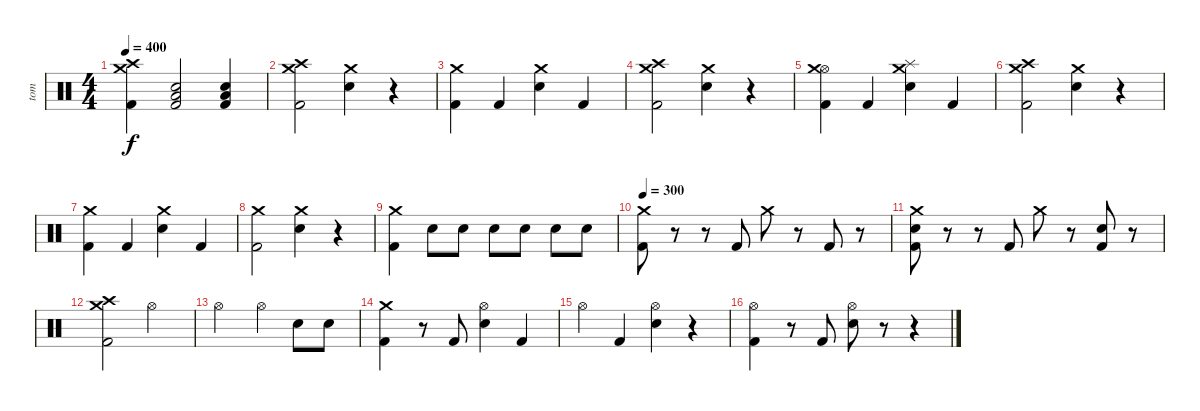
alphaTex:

\track ("tom" "tom") {instrument percussion}
\staff {score}
\articulation defaults
\ts (4 4)
\tempo 400
\clef neutral
\ks c
("Crash high (hit)" "Crash medium (hit)" "Kick (hit) 2").4{dy f} ("Low Tom (hit)" "Kick (hit) 2" "Electric Snare (hit)").2 ("Low Tom (hit)" "Kick (hit) 2" "Electric Snare (hit)").4 |
("Crash high (hit)" "Crash medium (hit)" "Kick (hit) 2").2 ("Crash medium (hit)" "Electric Snare (hit)").4 r.4 |
("Crash medium (hit)" "Kick (hit) 2").4 "Kick (hit) 2".4 ("Crash medium (hit)" "Electric Snare (hit)").4 "Kick (hit) 2".4 |
("Crash high (hit)" "Crash medium (hit)" "Kick (hit) 2").2 ("Crash medium (hit)" "Electric Snare (hit)").4 r.4 |
("Hi-Hat (open)" "Crash medium (hit)" "Kick (hit) 2").4 "Kick (hit) 2".4 ("Splash (hit)" "Crash medium (hit)" "Electric Snare (hit)").4 "Kick (hit) 2".4 |
("Crash high (hit)" "Crash medium (hit)" "Kick (hit) 2").2 ("Crash medium (hit)" "Electric Snare (hit)").4 r.4 |
("Crash medium (hit)" "Kick (hit) 2").4 "Kick (hit) 2".4 ("Crash medium (hit)" "Electric Snare (hit)").4 "Kick (hit) 2".4 |
("Crash medium (hit)" "Kick (hit) 2").2 ("Crash medium (hit)" "Electric Snare (hit)").4 r.4 |
("Crash medium (hit)" "Kick (hit) 2").4 "Electric Snare (hit)".8 "Electric Snare (hit)".8 "Electric Snare (hit)".8 "Electric Snare (hit)".8 "Electric Snare (hit)".8 "Electric Snare (hit)".8 |
\tempo 300
("Crash medium (hit)" "Kick (hit) 2").8 r.8 r.8 "Kick (hit) 2".8 "Crash medium (hit)".8 r.8 "Kick (hit) 2".8 r.8 |
("Electric Snare (hit)" "Crash medium (hit)" "Kick (hit) 2").8 r.8 r.8 "Kick (hit) 2".8 "Crash medium (hit)".8 r.8 ("Electric Snare (hit)" "Kick (hit) 2").8 r.8 |
("Crash high (hit)" "Crash medium (hit)" "Kick (hit) 2").2 "Hi-Hat (open)".2 |
"Hi-Hat (open)".2 "Hi-Hat (open)".4 "Electric Snare (hit)".8 "Electric Snare (hit)".8 |
("Crash medium (hit)" "Kick (hit) 2").4 r.8 "Kick (hit) 2".8 ("Hi-Hat (open)" "Electric Snare (hit)").4 "Kick (hit) 2".4 |
"Hi-Hat (open)".4 "Kick (hit) 2".4 ("Hi-Hat (open)" "Electric Snare (hit)").4 r.4 |
("Hi-Hat (open)" "Kick (hit) 2").4 r.8 "Kick (hit) 2".8 ("Hi-Hat (open)" "Electric Snare (hit)").8 r.8 r.4
